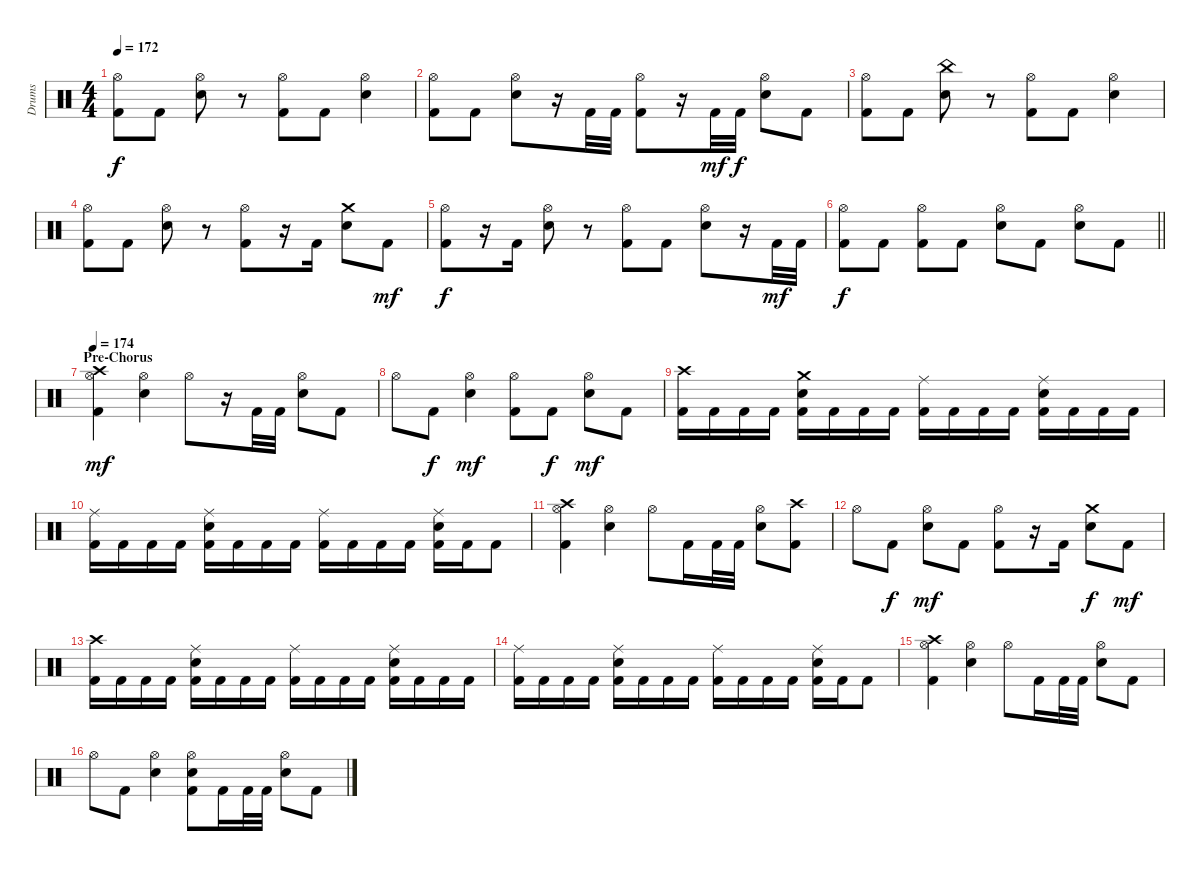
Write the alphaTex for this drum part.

\track ("Drums" "Drums") {instrument percussion}
\staff {score}
\articulation defaults
\ts (4 4)
\tempo 172
\clef neutral
\ks c
("Hi-Hat (open)" "Kick (hit) 2").8{dy f} "Kick (hit) 2".8 ("Hi-Hat (open)" "Snare (hit) 2").8 r.8 ("Hi-Hat (open)" "Kick (hit) 2").8 "Kick (hit) 2".8 ("Hi-Hat (open)" "Snare (hit) 2").4 |
("Hi-Hat (open)" "Kick (hit) 2").8 "Kick (hit) 2".8 ("Hi-Hat (open)" "Snare (hit) 2").8 r.16 "Kick (hit) 2".32 "Kick (hit) 2".32 ("Hi-Hat (open)" "Kick (hit) 2").8 r.16 "Kick (hit) 2".32{dy mf} "Kick (hit) 2".32{dy f} ("Hi-Hat (open)" "Snare (hit) 2").8 "Kick (hit) 2".8 |
("Hi-Hat (open)" "Kick (hit) 2").8 "Kick (hit) 2".8 ("China (hit)" "Snare (hit) 2").8 r.8 ("Hi-Hat (open)" "Kick (hit) 2").8 "Kick (hit) 2".8 ("Hi-Hat (open)" "Snare (hit) 2").4 |
("Hi-Hat (open)" "Kick (hit) 2").8 "Kick (hit) 2".8 ("Hi-Hat (open)" "Snare (hit) 2").8 r.8 ("Hi-Hat (open)" "Kick (hit) 2").8 r.16 "Kick (hit) 2".16 ("Crash medium (hit)" "Snare (hit) 2").8 "Kick (hit) 2".8{dy mf} |
("Hi-Hat (open)" "Kick (hit) 2").8{dy f} r.16 "Kick (hit) 2".16 ("Hi-Hat (open)" "Snare (hit) 2").8 r.8 ("Hi-Hat (open)" "Kick (hit) 2").8 "Kick (hit) 2".8 ("Hi-Hat (open)" "Snare (hit) 2").8 r.16 "Kick (hit) 2".32{dy mf} "Kick (hit) 2".32 |
\barLineRight lightlight
("Hi-Hat (open)" "Kick (hit) 2").8{dy f} "Kick (hit) 2".8 ("Hi-Hat (open)" "Kick (hit) 2").8 "Kick (hit) 2".8 ("Hi-Hat (open)" "Snare (hit) 2").8 "Kick (hit) 2".8 ("Hi-Hat (open)" "Snare (hit) 2").8 "Kick (hit) 2".8 |
\section ("" "Pre-Chorus")
\tempo 174
("Crash high (hit)" "Hi-Hat (open)" "Kick (hit) 2").4{dy mf} ("Hi-Hat (open)" "Snare (hit) 2").4 "Hi-Hat (open)".8 r.16 "Kick (hit) 2".32 "Kick (hit) 2".32 ("Hi-Hat (open)" "Snare (hit) 2").8 "Kick (hit) 2".8 |
"Hi-Hat (open)".8 "Kick (hit) 2".8{dy f} ("Hi-Hat (open)" "Snare (hit) 2").4{dy mf} ("Hi-Hat (open)" "Kick (hit) 2").8 "Kick (hit) 2".8{dy f} ("Hi-Hat (open)" "Snare (hit) 2").8{dy mf} "Kick (hit) 2".8 |
("Crash high (hit)" "Kick (hit) 2").16 "Kick (hit) 2".16 "Kick (hit) 2".16 "Kick (hit) 2".16 ("Crash medium (hit)" "Snare (hit) 2" "Kick (hit) 2").16 "Kick (hit) 2".16 "Kick (hit) 2".16 "Kick (hit) 2".16 ("Ride (middle)" "Kick (hit) 2").16 "Kick (hit) 2".16 "Kick (hit) 2".16 "Kick (hit) 2".16 ("Ride (middle)" "Snare (hit) 2" "Kick (hit) 2").16 "Kick (hit) 2".16 "Kick (hit) 2".16 "Kick (hit) 2".16 |
("Ride (middle)" "Kick (hit) 2").16 "Kick (hit) 2".16 "Kick (hit) 2".16 "Kick (hit) 2".16 ("Ride (middle)" "Snare (hit) 2" "Kick (hit) 2").16 "Kick (hit) 2".16 "Kick (hit) 2".16 "Kick (hit) 2".16 ("Ride (middle)" "Kick (hit) 2").16 "Kick (hit) 2".16 "Kick (hit) 2".16 "Kick (hit) 2".16 ("Ride (middle)" "Snare (hit) 2" "Kick (hit) 2").16 "Kick (hit) 2".16 "Kick (hit) 2".8 |
("Crash high (hit)" "Hi-Hat (open)" "Kick (hit) 2").4 ("Hi-Hat (open)" "Snare (hit) 2").4 "Hi-Hat (open)".8 "Kick (hit) 2".16 "Kick (hit) 2".32 "Kick (hit) 2".32 ("Hi-Hat (open)" "Snare (hit) 2").8 ("Crash high (hit)" "Kick (hit) 2").8 |
"Hi-Hat (open)".8 "Kick (hit) 2".8{dy f} ("Hi-Hat (open)" "Snare (hit) 2").8{dy mf} "Kick (hit) 2".8 ("Hi-Hat (open)" "Kick (hit) 2").8 r.16 "Kick (hit) 2".16 ("Crash medium (hit)" "Snare (hit) 2").8{dy f} "Kick (hit) 2".8{dy mf} |
("Crash high (hit)" "Kick (hit) 2").16 "Kick (hit) 2".16 "Kick (hit) 2".16 "Kick (hit) 2".16 ("Ride (middle)" "Snare (hit) 2" "Kick (hit) 2").16 "Kick (hit) 2".16 "Kick (hit) 2".16 "Kick (hit) 2".16 ("Ride (middle)" "Kick (hit) 2").16 "Kick (hit) 2".16 "Kick (hit) 2".16 "Kick (hit) 2".16 ("Ride (middle)" "Snare (hit) 2" "Kick (hit) 2").16 "Kick (hit) 2".16 "Kick (hit) 2".16 "Kick (hit) 2".16 |
("Ride (middle)" "Kick (hit) 2").16 "Kick (hit) 2".16 "Kick (hit) 2".16 "Kick (hit) 2".16 ("Ride (middle)" "Snare (hit) 2" "Kick (hit) 2").16 "Kick (hit) 2".16 "Kick (hit) 2".16 "Kick (hit) 2".16 ("Ride (middle)" "Kick (hit) 2").16 "Kick (hit) 2".16 "Kick (hit) 2".16 "Kick (hit) 2".16 ("Ride (middle)" "Snare (hit) 2" "Kick (hit) 2").16 "Kick (hit) 2".16 "Kick (hit) 2".8 |
("Crash high (hit)" "Hi-Hat (open)" "Kick (hit) 2").4 ("Hi-Hat (open)" "Snare (hit) 2").4 "Hi-Hat (open)".8 "Kick (hit) 2".16 "Kick (hit) 2".32 "Kick (hit) 2".32 ("Hi-Hat (open)" "Snare (hit) 2").8 "Kick (hit) 2".8 |
"Hi-Hat (open)".8 "Kick (hit) 2".8 ("Hi-Hat (open)" "Snare (hit) 2").4 ("Hi-Hat (open)" "Snare (hit) 2" "Kick (hit) 2").8 "Kick (hit) 2".16 "Kick (hit) 2".32 "Kick (hit) 2".32 ("Hi-Hat (open)" "Snare (hit) 2").8 "Kick (hit) 2".8
